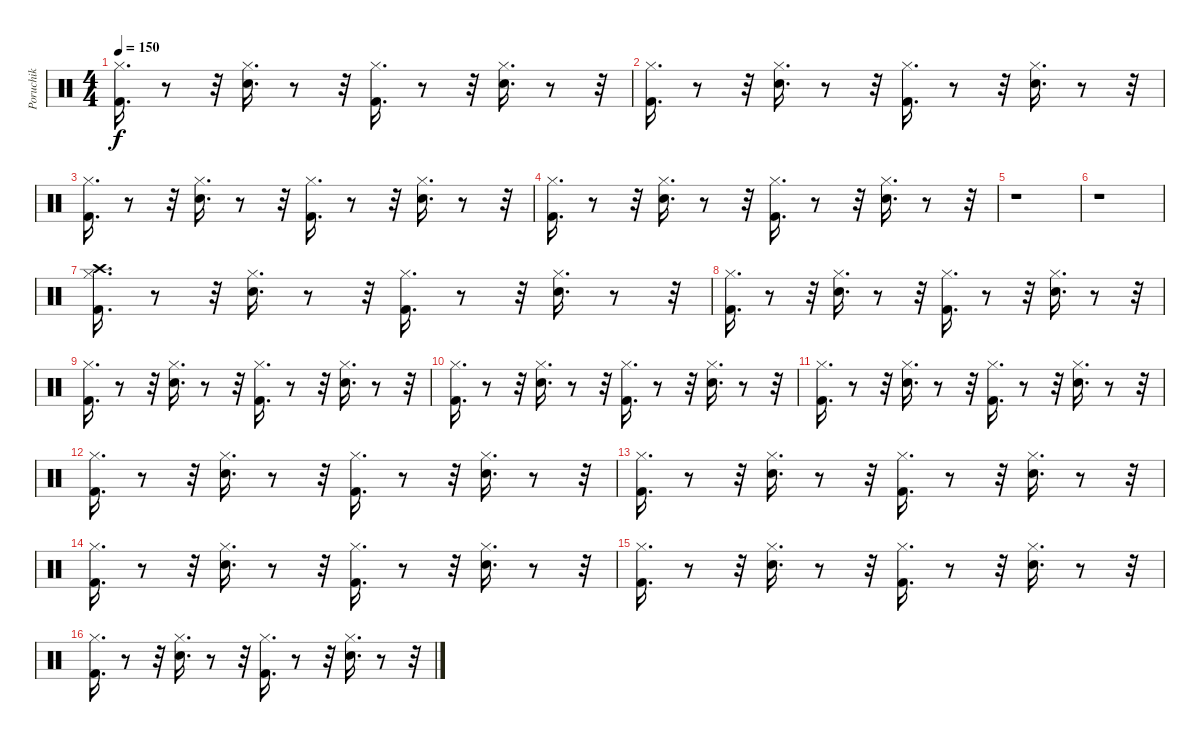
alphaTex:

\track ("Poruchik" "Poruchik") {instrument percussion}
\staff {score}
\articulation defaults
\ts (4 4)
\tempo 150
\clef neutral
\ks c
("Kick (hit) 2" "Hi-Hat (closed)").16{d dy f} r.8 r.32 ("Snare (hit) 2" "Hi-Hat (closed)").16{d} r.8 r.32 ("Kick (hit) 2" "Hi-Hat (closed)").16{d} r.8 r.32 ("Snare (hit) 2" "Hi-Hat (closed)").16{d} r.8 r.32 |
("Kick (hit) 2" "Hi-Hat (closed)").16{d} r.8 r.32 ("Snare (hit) 2" "Hi-Hat (closed)").16{d} r.8 r.32 ("Kick (hit) 2" "Hi-Hat (closed)").16{d} r.8 r.32 ("Snare (hit) 2" "Hi-Hat (closed)").16{d} r.8 r.32 |
("Kick (hit) 2" "Hi-Hat (closed)").16{d} r.8 r.32 ("Snare (hit) 2" "Hi-Hat (closed)").16{d} r.8 r.32 ("Kick (hit) 2" "Hi-Hat (closed)").16{d} r.8 r.32 ("Snare (hit) 2" "Hi-Hat (closed)").16{d} r.8 r.32 |
("Kick (hit) 2" "Hi-Hat (closed)").16{d} r.8 r.32 ("Snare (hit) 2" "Hi-Hat (closed)").16{d} r.8 r.32 ("Kick (hit) 2" "Hi-Hat (closed)").16{d} r.8 r.32 ("Snare (hit) 2" "Hi-Hat (closed)").16{d} r.8 r.32 |
r.1 |
r.1 |
("Crash high (hit)" "Kick (hit) 2" "Hi-Hat (closed)").16{d} r.8 r.32 ("Snare (hit) 2" "Hi-Hat (closed)").16{d} r.8 r.32 ("Kick (hit) 2" "Hi-Hat (closed)").16{d} r.8 r.32 ("Snare (hit) 2" "Hi-Hat (closed)").16{d} r.8 r.32 |
("Kick (hit) 2" "Hi-Hat (closed)").16{d} r.8 r.32 ("Snare (hit) 2" "Hi-Hat (closed)").16{d} r.8 r.32 ("Kick (hit) 2" "Hi-Hat (closed)").16{d} r.8 r.32 ("Snare (hit) 2" "Hi-Hat (closed)").16{d} r.8 r.32 |
("Kick (hit) 2" "Hi-Hat (closed)").16{d} r.8 r.32 ("Snare (hit) 2" "Hi-Hat (closed)").16{d} r.8 r.32 ("Kick (hit) 2" "Hi-Hat (closed)").16{d} r.8 r.32 ("Snare (hit) 2" "Hi-Hat (closed)").16{d} r.8 r.32 |
("Kick (hit) 2" "Hi-Hat (closed)").16{d} r.8 r.32 ("Snare (hit) 2" "Hi-Hat (closed)").16{d} r.8 r.32 ("Kick (hit) 2" "Hi-Hat (closed)").16{d} r.8 r.32 ("Snare (hit) 2" "Hi-Hat (closed)").16{d} r.8 r.32 |
("Kick (hit) 2" "Hi-Hat (closed)").16{d} r.8 r.32 ("Snare (hit) 2" "Hi-Hat (closed)").16{d} r.8 r.32 ("Kick (hit) 2" "Hi-Hat (closed)").16{d} r.8 r.32 ("Snare (hit) 2" "Hi-Hat (closed)").16{d} r.8 r.32 |
("Kick (hit) 2" "Hi-Hat (closed)").16{d} r.8 r.32 ("Snare (hit) 2" "Hi-Hat (closed)").16{d} r.8 r.32 ("Kick (hit) 2" "Hi-Hat (closed)").16{d} r.8 r.32 ("Snare (hit) 2" "Hi-Hat (closed)").16{d} r.8 r.32 |
("Kick (hit) 2" "Hi-Hat (closed)").16{d} r.8 r.32 ("Snare (hit) 2" "Hi-Hat (closed)").16{d} r.8 r.32 ("Kick (hit) 2" "Hi-Hat (closed)").16{d} r.8 r.32 ("Snare (hit) 2" "Hi-Hat (closed)").16{d} r.8 r.32 |
("Kick (hit) 2" "Hi-Hat (closed)").16{d} r.8 r.32 ("Snare (hit) 2" "Hi-Hat (closed)").16{d} r.8 r.32 ("Kick (hit) 2" "Hi-Hat (closed)").16{d} r.8 r.32 ("Snare (hit) 2" "Hi-Hat (closed)").16{d} r.8 r.32 |
("Kick (hit) 2" "Hi-Hat (closed)").16{d} r.8 r.32 ("Snare (hit) 2" "Hi-Hat (closed)").16{d} r.8 r.32 ("Kick (hit) 2" "Hi-Hat (closed)").16{d} r.8 r.32 ("Snare (hit) 2" "Hi-Hat (closed)").16{d} r.8 r.32 |
("Kick (hit) 2" "Hi-Hat (closed)").16{d} r.8 r.32 ("Snare (hit) 2" "Hi-Hat (closed)").16{d} r.8 r.32 ("Kick (hit) 2" "Hi-Hat (closed)").16{d} r.8 r.32 ("Snare (hit) 2" "Hi-Hat (closed)").16{d} r.8 r.32
